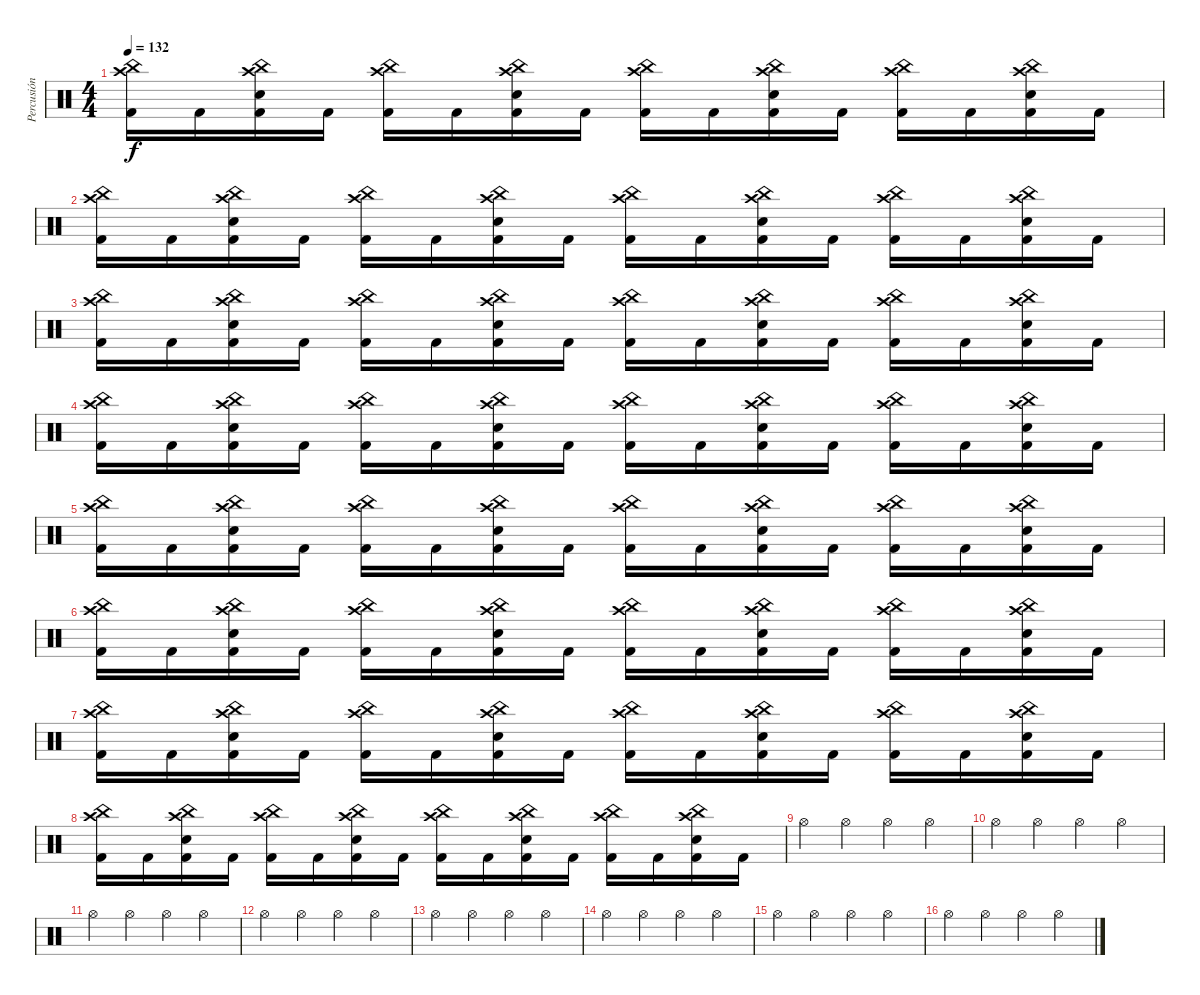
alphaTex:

\track ("Percusión" "Percusión") {instrument percussion}
\staff {score}
\articulation defaults
\ts (4 4)
\tempo 132
\clef neutral
\ks c
("Crash high (hit)" "China (hit)" "Kick (hit) 2").16{dy f} "Kick (hit) 2".16 ("Crash high (hit)" "China (hit)" "Electric Snare (hit)" "Kick (hit) 2").16 "Kick (hit) 2".16 ("Crash high (hit)" "China (hit)" "Kick (hit) 2").16 "Kick (hit) 2".16 ("Crash high (hit)" "China (hit)" "Electric Snare (hit)" "Kick (hit) 2").16 "Kick (hit) 2".16 ("Crash high (hit)" "China (hit)" "Kick (hit) 2").16 "Kick (hit) 2".16 ("Crash high (hit)" "China (hit)" "Electric Snare (hit)" "Kick (hit) 2").16 "Kick (hit) 2".16 ("Crash high (hit)" "China (hit)" "Kick (hit) 2").16 "Kick (hit) 2".16 ("Crash high (hit)" "China (hit)" "Electric Snare (hit)" "Kick (hit) 2").16 "Kick (hit) 2".16 |
("Crash high (hit)" "China (hit)" "Kick (hit) 2").16 "Kick (hit) 2".16 ("Crash high (hit)" "China (hit)" "Electric Snare (hit)" "Kick (hit) 2").16 "Kick (hit) 2".16 ("Crash high (hit)" "China (hit)" "Kick (hit) 2").16 "Kick (hit) 2".16 ("Crash high (hit)" "China (hit)" "Electric Snare (hit)" "Kick (hit) 2").16 "Kick (hit) 2".16 ("Crash high (hit)" "China (hit)" "Kick (hit) 2").16 "Kick (hit) 2".16 ("Crash high (hit)" "China (hit)" "Electric Snare (hit)" "Kick (hit) 2").16 "Kick (hit) 2".16 ("Crash high (hit)" "China (hit)" "Kick (hit) 2").16 "Kick (hit) 2".16 ("Crash high (hit)" "China (hit)" "Electric Snare (hit)" "Kick (hit) 2").16 "Kick (hit) 2".16 |
("Crash high (hit)" "China (hit)" "Kick (hit) 2").16 "Kick (hit) 2".16 ("Crash high (hit)" "China (hit)" "Electric Snare (hit)" "Kick (hit) 2").16 "Kick (hit) 2".16 ("Crash high (hit)" "China (hit)" "Kick (hit) 2").16 "Kick (hit) 2".16 ("Crash high (hit)" "China (hit)" "Electric Snare (hit)" "Kick (hit) 2").16 "Kick (hit) 2".16 ("Crash high (hit)" "China (hit)" "Kick (hit) 2").16 "Kick (hit) 2".16 ("Crash high (hit)" "China (hit)" "Electric Snare (hit)" "Kick (hit) 2").16 "Kick (hit) 2".16 ("Crash high (hit)" "China (hit)" "Kick (hit) 2").16 "Kick (hit) 2".16 ("Crash high (hit)" "China (hit)" "Electric Snare (hit)" "Kick (hit) 2").16 "Kick (hit) 2".16 |
("Crash high (hit)" "China (hit)" "Kick (hit) 2").16 "Kick (hit) 2".16 ("Crash high (hit)" "China (hit)" "Electric Snare (hit)" "Kick (hit) 2").16 "Kick (hit) 2".16 ("Crash high (hit)" "China (hit)" "Kick (hit) 2").16 "Kick (hit) 2".16 ("Crash high (hit)" "China (hit)" "Electric Snare (hit)" "Kick (hit) 2").16 "Kick (hit) 2".16 ("Crash high (hit)" "China (hit)" "Kick (hit) 2").16 "Kick (hit) 2".16 ("Crash high (hit)" "China (hit)" "Electric Snare (hit)" "Kick (hit) 2").16 "Kick (hit) 2".16 ("Crash high (hit)" "China (hit)" "Kick (hit) 2").16 "Kick (hit) 2".16 ("Crash high (hit)" "China (hit)" "Electric Snare (hit)" "Kick (hit) 2").16 "Kick (hit) 2".16 |
("Crash high (hit)" "China (hit)" "Kick (hit) 2").16 "Kick (hit) 2".16 ("Crash high (hit)" "China (hit)" "Electric Snare (hit)" "Kick (hit) 2").16 "Kick (hit) 2".16 ("Crash high (hit)" "China (hit)" "Kick (hit) 2").16 "Kick (hit) 2".16 ("Crash high (hit)" "China (hit)" "Electric Snare (hit)" "Kick (hit) 2").16 "Kick (hit) 2".16 ("Crash high (hit)" "China (hit)" "Kick (hit) 2").16 "Kick (hit) 2".16 ("Crash high (hit)" "China (hit)" "Electric Snare (hit)" "Kick (hit) 2").16 "Kick (hit) 2".16 ("Crash high (hit)" "China (hit)" "Kick (hit) 2").16 "Kick (hit) 2".16 ("Crash high (hit)" "China (hit)" "Electric Snare (hit)" "Kick (hit) 2").16 "Kick (hit) 2".16 |
("Crash high (hit)" "China (hit)" "Kick (hit) 2").16 "Kick (hit) 2".16 ("Crash high (hit)" "China (hit)" "Electric Snare (hit)" "Kick (hit) 2").16 "Kick (hit) 2".16 ("Crash high (hit)" "China (hit)" "Kick (hit) 2").16 "Kick (hit) 2".16 ("Crash high (hit)" "China (hit)" "Electric Snare (hit)" "Kick (hit) 2").16 "Kick (hit) 2".16 ("Crash high (hit)" "China (hit)" "Kick (hit) 2").16 "Kick (hit) 2".16 ("Crash high (hit)" "China (hit)" "Electric Snare (hit)" "Kick (hit) 2").16 "Kick (hit) 2".16 ("Crash high (hit)" "China (hit)" "Kick (hit) 2").16 "Kick (hit) 2".16 ("Crash high (hit)" "China (hit)" "Electric Snare (hit)" "Kick (hit) 2").16 "Kick (hit) 2".16 |
("Crash high (hit)" "China (hit)" "Kick (hit) 2").16 "Kick (hit) 2".16 ("Crash high (hit)" "China (hit)" "Electric Snare (hit)" "Kick (hit) 2").16 "Kick (hit) 2".16 ("Crash high (hit)" "China (hit)" "Kick (hit) 2").16 "Kick (hit) 2".16 ("Crash high (hit)" "China (hit)" "Electric Snare (hit)" "Kick (hit) 2").16 "Kick (hit) 2".16 ("Crash high (hit)" "China (hit)" "Kick (hit) 2").16 "Kick (hit) 2".16 ("Crash high (hit)" "China (hit)" "Electric Snare (hit)" "Kick (hit) 2").16 "Kick (hit) 2".16 ("Crash high (hit)" "China (hit)" "Kick (hit) 2").16 "Kick (hit) 2".16 ("Crash high (hit)" "China (hit)" "Electric Snare (hit)" "Kick (hit) 2").16 "Kick (hit) 2".16 |
("Crash high (hit)" "China (hit)" "Kick (hit) 2").16 "Kick (hit) 2".16 ("Crash high (hit)" "China (hit)" "Electric Snare (hit)" "Kick (hit) 2").16 "Kick (hit) 2".16 ("Crash high (hit)" "China (hit)" "Kick (hit) 2").16 "Kick (hit) 2".16 ("Crash high (hit)" "China (hit)" "Electric Snare (hit)" "Kick (hit) 2").16 "Kick (hit) 2".16 ("Crash high (hit)" "China (hit)" "Kick (hit) 2").16 "Kick (hit) 2".16 ("Crash high (hit)" "China (hit)" "Electric Snare (hit)" "Kick (hit) 2").16 "Kick (hit) 2".16 ("Crash high (hit)" "China (hit)" "Kick (hit) 2").16 "Kick (hit) 2".16 ("Crash high (hit)" "China (hit)" "Electric Snare (hit)" "Kick (hit) 2").16 "Kick (hit) 2".16 |
"Hi-Hat (open)".4 "Hi-Hat (open)".4 "Hi-Hat (open)".4 "Hi-Hat (open)".4 |
"Hi-Hat (open)".4 "Hi-Hat (open)".4 "Hi-Hat (open)".4 "Hi-Hat (open)".4 |
"Hi-Hat (open)".4 "Hi-Hat (open)".4 "Hi-Hat (open)".4 "Hi-Hat (open)".4 |
"Hi-Hat (open)".4 "Hi-Hat (open)".4 "Hi-Hat (open)".4 "Hi-Hat (open)".4 |
"Hi-Hat (open)".4 "Hi-Hat (open)".4 "Hi-Hat (open)".4 "Hi-Hat (open)".4 |
"Hi-Hat (open)".4 "Hi-Hat (open)".4 "Hi-Hat (open)".4 "Hi-Hat (open)".4 |
"Hi-Hat (open)".4 "Hi-Hat (open)".4 "Hi-Hat (open)".4 "Hi-Hat (open)".4 |
"Hi-Hat (open)".4 "Hi-Hat (open)".4 "Hi-Hat (open)".4 "Hi-Hat (open)".4
